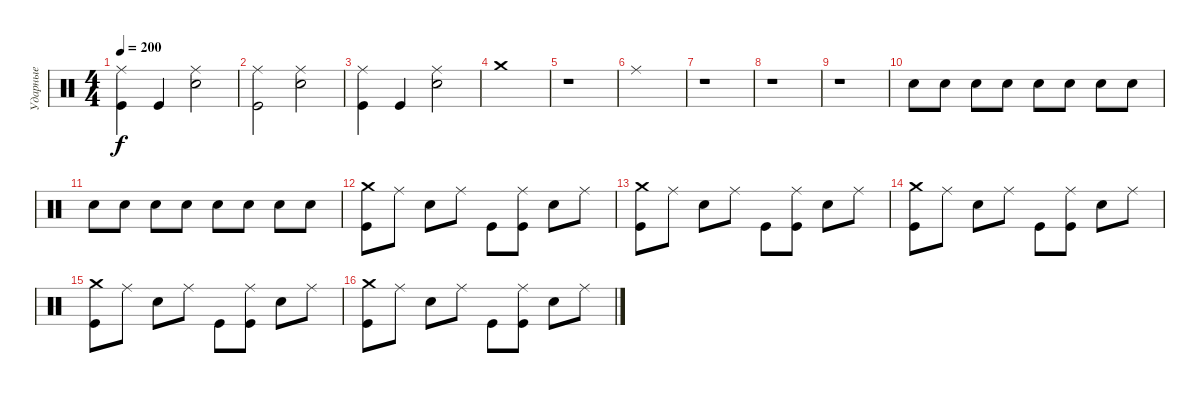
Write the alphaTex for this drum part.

\track ("Ударные" "Ударные") {instrument percussion}
\staff {score}
\articulation defaults
\ts (4 4)
\tempo 200
\clef neutral
\ks c
("Ride (middle)" "Kick (hit)").4{dy f} "Kick (hit)".4 ("Ride (middle)" "Electric Snare (hit)").2 |
("Ride (middle)" "Kick (hit)").2 ("Ride (middle)" "Electric Snare (hit)").2 |
("Ride (middle)" "Kick (hit)").4 "Kick (hit)".4 ("Ride (middle)" "Electric Snare (hit)").2 |
"Crash medium (hit)".1 |
r.1 |
"Ride (middle)".1 |
r.1 |
r.1 |
r.1 |
"Electric Snare (hit)".8 "Electric Snare (hit)".8 "Electric Snare (hit)".8 "Electric Snare (hit)".8 "Electric Snare (hit)".8 "Electric Snare (hit)".8 "Electric Snare (hit)".8 "Electric Snare (hit)".8 |
"Electric Snare (hit)".8 "Electric Snare (hit)".8 "Electric Snare (hit)".8 "Electric Snare (hit)".8 "Electric Snare (hit)".8 "Electric Snare (hit)".8 "Electric Snare (hit)".8 "Electric Snare (hit)".8 |
("Crash medium (hit)" "Kick (hit)").8 "Ride (middle)".8 "Electric Snare (hit)".8 "Ride (middle)".8 "Kick (hit)".8 ("Ride (middle)" "Kick (hit)").8 "Electric Snare (hit)".8 "Ride (middle)".8 |
("Crash medium (hit)" "Kick (hit)").8 "Ride (middle)".8 "Electric Snare (hit)".8 "Ride (middle)".8 "Kick (hit)".8 ("Ride (middle)" "Kick (hit)").8 "Electric Snare (hit)".8 "Ride (middle)".8 |
("Crash medium (hit)" "Kick (hit)").8 "Ride (middle)".8 "Electric Snare (hit)".8 "Ride (middle)".8 "Kick (hit)".8 ("Ride (middle)" "Kick (hit)").8 "Electric Snare (hit)".8 "Ride (middle)".8 |
("Crash medium (hit)" "Kick (hit)").8 "Ride (middle)".8 "Electric Snare (hit)".8 "Ride (middle)".8 "Kick (hit)".8 ("Ride (middle)" "Kick (hit)").8 "Electric Snare (hit)".8 "Ride (middle)".8 |
("Crash medium (hit)" "Kick (hit)").8 "Ride (middle)".8 "Electric Snare (hit)".8 "Ride (middle)".8 "Kick (hit)".8 ("Ride (middle)" "Kick (hit)").8 "Electric Snare (hit)".8 "Ride (middle)".8
